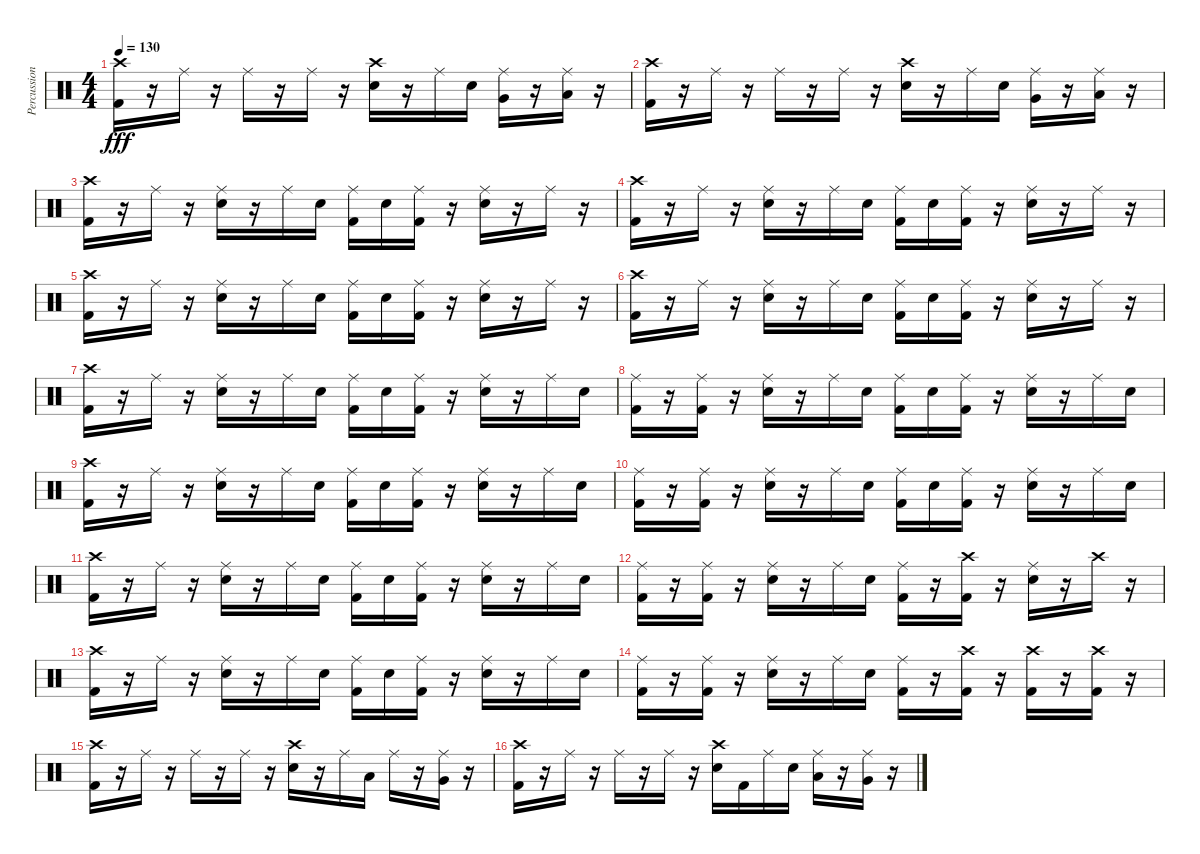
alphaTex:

\track ("Percussion" "Percussion") {instrument percussion}
\staff {score}
\articulation defaults
\ts (4 4)
\tempo 130
\clef neutral
\ks c
("Crash high (hit)" "Kick (hit) 2").16{dy fff} r.16 "Ride (middle)".16 r.16 "Ride (middle)".16 r.16 "Ride (middle)".16 r.16 ("Crash high (hit)" "Electric Snare (hit)").16 r.16 "Ride (middle)".16 "Electric Snare (hit)".16 ("Ride (middle)" "Very Low Tom (hit)").16 r.16 ("Ride (middle)" "Low Floor Tom (hit)").16 r.16 |
("Crash high (hit)" "Kick (hit) 2").16 r.16 "Ride (middle)".16 r.16 "Ride (middle)".16 r.16 "Ride (middle)".16 r.16 ("Crash high (hit)" "Electric Snare (hit)").16 r.16 "Ride (middle)".16 "Electric Snare (hit)".16 ("Ride (middle)" "Very Low Tom (hit)").16 r.16 ("Ride (middle)" "Low Floor Tom (hit)").16 r.16 |
("Crash high (hit)" "Kick (hit) 2").16 r.16 "Ride (middle)".16 r.16 ("Ride (middle)" "Electric Snare (hit)").16 r.16 "Ride (middle)".16 "Electric Snare (hit)".16 ("Ride (middle)" "Kick (hit) 2").16 "Electric Snare (hit)".16 ("Ride (middle)" "Kick (hit) 2").16 r.16 ("Ride (middle)" "Electric Snare (hit)").16 r.16 "Ride (middle)".16 r.16 |
("Crash high (hit)" "Kick (hit) 2").16 r.16 "Ride (middle)".16 r.16 ("Ride (middle)" "Electric Snare (hit)").16 r.16 "Ride (middle)".16 "Electric Snare (hit)".16 ("Ride (middle)" "Kick (hit) 2").16 "Electric Snare (hit)".16 ("Ride (middle)" "Kick (hit) 2").16 r.16 ("Ride (middle)" "Electric Snare (hit)").16 r.16 "Ride (middle)".16 r.16 |
("Crash high (hit)" "Kick (hit) 2").16 r.16 "Ride (middle)".16 r.16 ("Ride (middle)" "Electric Snare (hit)").16 r.16 "Ride (middle)".16 "Electric Snare (hit)".16 ("Ride (middle)" "Kick (hit) 2").16 "Electric Snare (hit)".16 ("Ride (middle)" "Kick (hit) 2").16 r.16 ("Ride (middle)" "Electric Snare (hit)").16 r.16 "Ride (middle)".16 r.16 |
("Crash high (hit)" "Kick (hit) 2").16 r.16 "Ride (middle)".16 r.16 ("Ride (middle)" "Electric Snare (hit)").16 r.16 "Ride (middle)".16 "Electric Snare (hit)".16 ("Ride (middle)" "Kick (hit) 2").16 "Electric Snare (hit)".16 ("Ride (middle)" "Kick (hit) 2").16 r.16 ("Ride (middle)" "Electric Snare (hit)").16 r.16 "Ride (middle)".16 r.16 |
("Crash high (hit)" "Kick (hit) 2").16 r.16 "Ride (middle)".16 r.16 ("Ride (middle)" "Electric Snare (hit)").16 r.16 "Ride (middle)".16 "Electric Snare (hit)".16 ("Ride (middle)" "Kick (hit) 2").16 "Electric Snare (hit)".16 ("Ride (middle)" "Kick (hit) 2").16 r.16 ("Ride (middle)" "Electric Snare (hit)").16 r.16 "Ride (middle)".16 "Electric Snare (hit)".16 |
("Ride (middle)" "Kick (hit) 2").16 r.16 ("Ride (middle)" "Kick (hit) 2").16 r.16 ("Ride (middle)" "Electric Snare (hit)").16 r.16 "Ride (middle)".16 "Electric Snare (hit)".16 ("Ride (middle)" "Kick (hit) 2").16 "Electric Snare (hit)".16 ("Ride (middle)" "Kick (hit) 2").16 r.16 ("Ride (middle)" "Electric Snare (hit)").16 r.16 "Ride (middle)".16 "Electric Snare (hit)".16 |
("Crash high (hit)" "Kick (hit) 2").16 r.16 "Ride (middle)".16 r.16 ("Ride (middle)" "Electric Snare (hit)").16 r.16 "Ride (middle)".16 "Electric Snare (hit)".16 ("Ride (middle)" "Kick (hit) 2").16 "Electric Snare (hit)".16 ("Ride (middle)" "Kick (hit) 2").16 r.16 ("Ride (middle)" "Electric Snare (hit)").16 r.16 "Ride (middle)".16 "Electric Snare (hit)".16 |
("Ride (middle)" "Kick (hit) 2").16 r.16 ("Ride (middle)" "Kick (hit) 2").16 r.16 ("Ride (middle)" "Electric Snare (hit)").16 r.16 "Ride (middle)".16 "Electric Snare (hit)".16 ("Ride (middle)" "Kick (hit) 2").16 "Electric Snare (hit)".16 ("Ride (middle)" "Kick (hit) 2").16 r.16 ("Ride (middle)" "Electric Snare (hit)").16 r.16 "Ride (middle)".16 "Electric Snare (hit)".16 |
("Crash high (hit)" "Kick (hit) 2").16 r.16 "Ride (middle)".16 r.16 ("Ride (middle)" "Electric Snare (hit)").16 r.16 "Ride (middle)".16 "Electric Snare (hit)".16 ("Ride (middle)" "Kick (hit) 2").16 "Electric Snare (hit)".16 ("Ride (middle)" "Kick (hit) 2").16 r.16 ("Ride (middle)" "Electric Snare (hit)").16 r.16 "Ride (middle)".16 "Electric Snare (hit)".16 |
("Ride (middle)" "Kick (hit) 2").16 r.16 ("Ride (middle)" "Kick (hit) 2").16 r.16 ("Ride (middle)" "Electric Snare (hit)").16 r.16 "Ride (middle)".16 "Electric Snare (hit)".16 ("Ride (middle)" "Kick (hit) 2").16 r.16 ("Crash high (hit)" "Kick (hit) 2").16 r.16 ("Ride (middle)" "Electric Snare (hit)").16 r.16 "Crash high (hit)".16 r.16 |
("Crash high (hit)" "Kick (hit) 2").16 r.16 "Ride (middle)".16 r.16 ("Ride (middle)" "Electric Snare (hit)").16 r.16 "Ride (middle)".16 "Electric Snare (hit)".16 ("Ride (middle)" "Kick (hit) 2").16 "Electric Snare (hit)".16 ("Ride (middle)" "Kick (hit) 2").16 r.16 ("Ride (middle)" "Electric Snare (hit)").16 r.16 "Ride (middle)".16 "Electric Snare (hit)".16 |
("Ride (middle)" "Kick (hit) 2").16 r.16 ("Ride (middle)" "Kick (hit) 2").16 r.16 ("Ride (middle)" "Electric Snare (hit)").16 r.16 "Ride (middle)".16 "Electric Snare (hit)".16 ("Ride (middle)" "Kick (hit) 2").16 r.16 ("Crash high (hit)" "Kick (hit) 2").16 r.16 ("Crash high (hit)" "Kick (hit) 2").16 r.16 ("Crash high (hit)" "Kick (hit) 2").16 r.16 |
("Crash high (hit)" "Kick (hit) 2").16 r.16 "Ride (middle)".16 r.16 "Ride (middle)".16 r.16 "Ride (middle)".16 r.16 ("Crash high (hit)" "Electric Snare (hit)").16 r.16 "Ride (middle)".16 "Low Tom (hit)".16 "Ride (middle)".16 r.16 ("Ride (middle)" "Very Low Tom (hit)").16 r.16 |
("Crash high (hit)" "Kick (hit) 2").16 r.16 "Ride (middle)".16 r.16 "Ride (middle)".16 r.16 "Ride (middle)".16 r.16 ("Crash high (hit)" "Electric Snare (hit)").16 "Kick (hit) 2".16 "Ride (middle)".16 "Electric Snare (hit)".16 ("Ride (middle)" "Low Tom (hit)").16 r.16 ("Ride (middle)" "Very Low Tom (hit)").16 r.16
